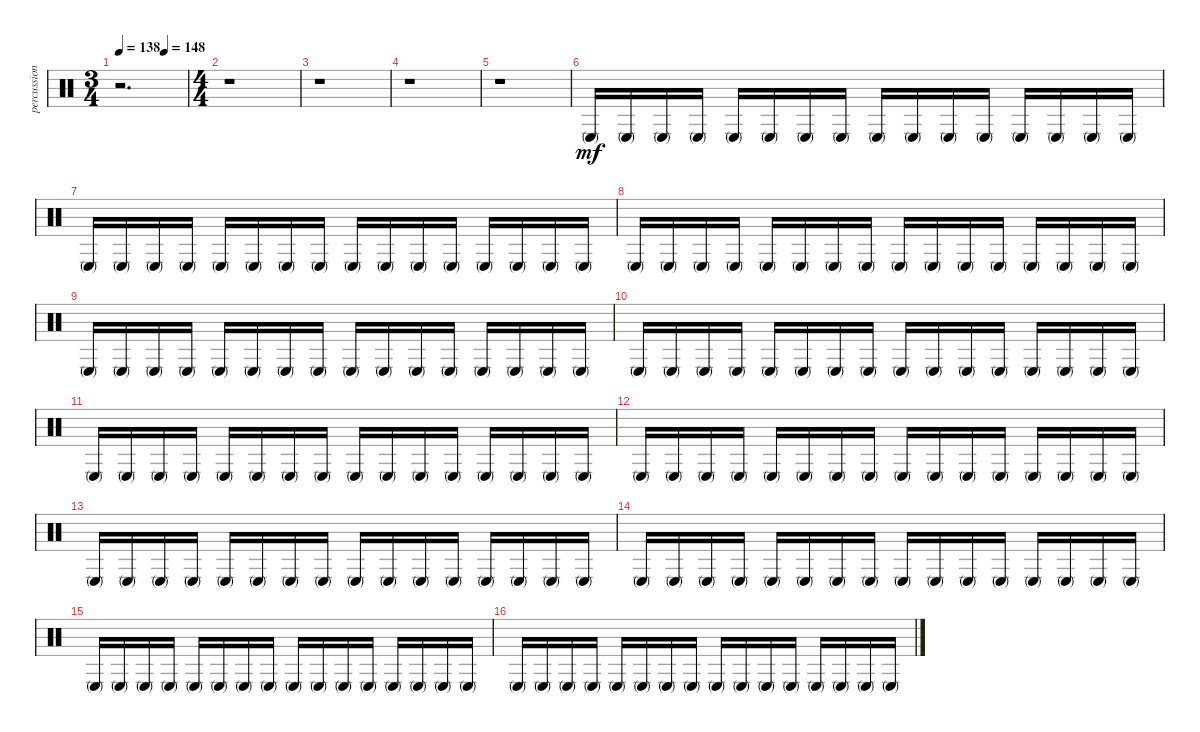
\track ("percussion fx 2" "percussion") {instrument percussion}
\staff {score}
\articulation defaults
\ts (3 4)
\tempo 138
\tempo (148 0.6666666666666666)
\clef neutral
\ks c
r.2{d dy mf} |
\ts (4 4)
r.1 |
r.1 |
r.1 |
r.1 |
"Conga low (mute)".16 "Conga low (mute)".16 "Conga low (mute)".16 "Conga low (mute)".16 "Conga low (mute)".16 "Conga low (mute)".16 "Conga low (mute)".16 "Conga low (mute)".16 "Conga low (mute)".16 "Conga low (mute)".16 "Conga low (mute)".16 "Conga low (mute)".16 "Conga low (mute)".16 "Conga low (mute)".16 "Conga low (mute)".16 "Conga low (mute)".16 |
"Conga low (mute)".16 "Conga low (mute)".16 "Conga low (mute)".16 "Conga low (mute)".16 "Conga low (mute)".16 "Conga low (mute)".16 "Conga low (mute)".16 "Conga low (mute)".16 "Conga low (mute)".16 "Conga low (mute)".16 "Conga low (mute)".16 "Conga low (mute)".16 "Conga low (mute)".16 "Conga low (mute)".16 "Conga low (mute)".16 "Conga low (mute)".16 |
"Conga low (mute)".16 "Conga low (mute)".16 "Conga low (mute)".16 "Conga low (mute)".16 "Conga low (mute)".16 "Conga low (mute)".16 "Conga low (mute)".16 "Conga low (mute)".16 "Conga low (mute)".16 "Conga low (mute)".16 "Conga low (mute)".16 "Conga low (mute)".16 "Conga low (mute)".16 "Conga low (mute)".16 "Conga low (mute)".16 "Conga low (mute)".16 |
"Conga low (mute)".16 "Conga low (mute)".16 "Conga low (mute)".16 "Conga low (mute)".16 "Conga low (mute)".16 "Conga low (mute)".16 "Conga low (mute)".16 "Conga low (mute)".16 "Conga low (mute)".16 "Conga low (mute)".16 "Conga low (mute)".16 "Conga low (mute)".16 "Conga low (mute)".16 "Conga low (mute)".16 "Conga low (mute)".16 "Conga low (mute)".16 |
"Conga low (mute)".16 "Conga low (mute)".16 "Conga low (mute)".16 "Conga low (mute)".16 "Conga low (mute)".16 "Conga low (mute)".16 "Conga low (mute)".16 "Conga low (mute)".16 "Conga low (mute)".16 "Conga low (mute)".16 "Conga low (mute)".16 "Conga low (mute)".16 "Conga low (mute)".16 "Conga low (mute)".16 "Conga low (mute)".16 "Conga low (mute)".16 |
"Conga low (mute)".16 "Conga low (mute)".16 "Conga low (mute)".16 "Conga low (mute)".16 "Conga low (mute)".16 "Conga low (mute)".16 "Conga low (mute)".16 "Conga low (mute)".16 "Conga low (mute)".16 "Conga low (mute)".16 "Conga low (mute)".16 "Conga low (mute)".16 "Conga low (mute)".16 "Conga low (mute)".16 "Conga low (mute)".16 "Conga low (mute)".16 |
"Conga low (mute)".16 "Conga low (mute)".16 "Conga low (mute)".16 "Conga low (mute)".16 "Conga low (mute)".16 "Conga low (mute)".16 "Conga low (mute)".16 "Conga low (mute)".16 "Conga low (mute)".16 "Conga low (mute)".16 "Conga low (mute)".16 "Conga low (mute)".16 "Conga low (mute)".16 "Conga low (mute)".16 "Conga low (mute)".16 "Conga low (mute)".16 |
"Conga low (mute)".16 "Conga low (mute)".16 "Conga low (mute)".16 "Conga low (mute)".16 "Conga low (mute)".16 "Conga low (mute)".16 "Conga low (mute)".16 "Conga low (mute)".16 "Conga low (mute)".16 "Conga low (mute)".16 "Conga low (mute)".16 "Conga low (mute)".16 "Conga low (mute)".16 "Conga low (mute)".16 "Conga low (mute)".16 "Conga low (mute)".16 |
"Conga low (mute)".16 "Conga low (mute)".16 "Conga low (mute)".16 "Conga low (mute)".16 "Conga low (mute)".16 "Conga low (mute)".16 "Conga low (mute)".16 "Conga low (mute)".16 "Conga low (mute)".16 "Conga low (mute)".16 "Conga low (mute)".16 "Conga low (mute)".16 "Conga low (mute)".16 "Conga low (mute)".16 "Conga low (mute)".16 "Conga low (mute)".16 |
"Conga low (mute)".16 "Conga low (mute)".16 "Conga low (mute)".16 "Conga low (mute)".16 "Conga low (mute)".16 "Conga low (mute)".16 "Conga low (mute)".16 "Conga low (mute)".16 "Conga low (mute)".16 "Conga low (mute)".16 "Conga low (mute)".16 "Conga low (mute)".16 "Conga low (mute)".16 "Conga low (mute)".16 "Conga low (mute)".16 "Conga low (mute)".16 |
"Conga low (mute)".16 "Conga low (mute)".16 "Conga low (mute)".16 "Conga low (mute)".16 "Conga low (mute)".16 "Conga low (mute)".16 "Conga low (mute)".16 "Conga low (mute)".16 "Conga low (mute)".16 "Conga low (mute)".16 "Conga low (mute)".16 "Conga low (mute)".16 "Conga low (mute)".16 "Conga low (mute)".16 "Conga low (mute)".16 "Conga low (mute)".16
